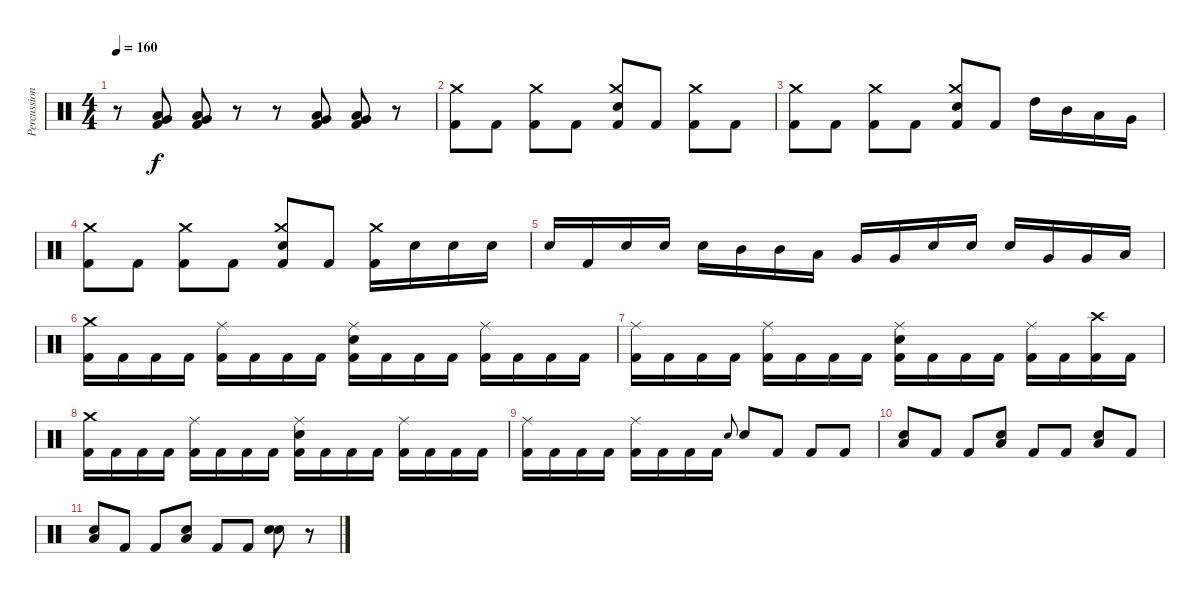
\track ("Percussion" "Percussion") {instrument percussion}
\staff {score}
\articulation defaults
\ts (4 4)
\tempo 160
\clef neutral
\ks c
r.8{dy f} ("Low Floor Tom (hit)" "Very Low Tom (hit)" "Kick (hit) 2").8 ("Low Floor Tom (hit)" "Very Low Tom (hit)" "Kick (hit) 2").8 r.8 r.8 ("Low Floor Tom (hit)" "Very Low Tom (hit)" "Kick (hit) 2").8 ("Low Floor Tom (hit)" "Very Low Tom (hit)" "Kick (hit) 2").8 r.8 |
("Crash medium (hit)" "Kick (hit) 2").8 "Kick (hit) 2".8 ("Crash medium (hit)" "Kick (hit) 2").8 "Kick (hit) 2".8 ("Crash medium (hit)" "Snare (hit) 2" "Kick (hit) 2").8 "Kick (hit) 2".8 ("Crash medium (hit)" "Kick (hit) 2").8 "Kick (hit) 2".8 |
("Crash medium (hit)" "Kick (hit) 2").8 "Kick (hit) 2".8 ("Crash medium (hit)" "Kick (hit) 2").8 "Kick (hit) 2".8 ("Crash medium (hit)" "Snare (hit) 2" "Kick (hit) 2").8 "Kick (hit) 2".8 "High Tom (hit)".16 "Mid Tom (hit)".16 "Low Tom (hit)".16 "Very Low Tom (hit)".16 |
("Crash medium (hit)" "Kick (hit) 2").8 "Kick (hit) 2".8 ("Crash medium (hit)" "Kick (hit) 2").8 "Kick (hit) 2".8 ("Crash medium (hit)" "Snare (hit) 2" "Kick (hit) 2").8 "Kick (hit) 2".8 ("Crash medium (hit)" "Kick (hit) 2").16 "Snare (hit) 2".16 "Snare (hit) 2".16 "Snare (hit) 2".16 |
"Snare (hit) 2".16 "Kick (hit) 2".16 "Snare (hit) 2".16 "Snare (hit) 2".16 "Snare (hit) 2".16 "Mid Tom (hit)".16 "Mid Tom (hit)".16 "Low Tom (hit)".16 "Very Low Tom (hit)".16 "Very Low Tom (hit)".16 "Snare (hit) 2".16 "Snare (hit) 2".16 "Snare (hit) 2".16 "Very Low Tom (hit)".16 "Very Low Tom (hit)".16 "Low Floor Tom (hit)".16 |
("Crash medium (hit)" "Kick (hit) 2").16 "Kick (hit) 2".16 "Kick (hit) 2".16 "Kick (hit) 2".16 ("Ride (middle)" "Kick (hit) 2").16 "Kick (hit) 2".16 "Kick (hit) 2".16 "Kick (hit) 2".16 ("Ride (middle)" "Snare (hit) 2" "Kick (hit) 2").16 "Kick (hit) 2".16 "Kick (hit) 2".16 "Kick (hit) 2".16 ("Ride (middle)" "Kick (hit) 2").16 "Kick (hit) 2".16 "Kick (hit) 2".16 "Kick (hit) 2".16 |
("Ride (middle)" "Kick (hit) 2").16 "Kick (hit) 2".16 "Kick (hit) 2".16 "Kick (hit) 2".16 ("Ride (middle)" "Kick (hit) 2").16 "Kick (hit) 2".16 "Kick (hit) 2".16 "Kick (hit) 2".16 ("Ride (middle)" "Snare (hit) 2" "Kick (hit) 2").16 "Kick (hit) 2".16 "Kick (hit) 2".16 "Kick (hit) 2".16 ("Ride (middle)" "Kick (hit) 2").16 "Kick (hit) 2".16 ("Crash high (hit)" "Kick (hit) 2").16 "Kick (hit) 2".16 |
("Crash medium (hit)" "Kick (hit) 2").16 "Kick (hit) 2".16 "Kick (hit) 2".16 "Kick (hit) 2".16 ("Ride (middle)" "Kick (hit) 2").16 "Kick (hit) 2".16 "Kick (hit) 2".16 "Kick (hit) 2".16 ("Ride (middle)" "Snare (hit) 2" "Kick (hit) 2").16 "Kick (hit) 2".16 "Kick (hit) 2".16 "Kick (hit) 2".16 ("Ride (middle)" "Kick (hit) 2").16 "Kick (hit) 2".16 "Kick (hit) 2".16 "Kick (hit) 2".16 |
("Ride (middle)" "Kick (hit) 2").16 "Kick (hit) 2".16 "Kick (hit) 2".16 "Kick (hit) 2".16 ("Ride (middle)" "Kick (hit) 2").16 "Kick (hit) 2".16 "Kick (hit) 2".16 "Kick (hit) 2".16 "Snare (hit) 2"{h}.8{gr onbeat} "Snare (hit) 2".8 "Kick (hit) 2".8 "Kick (hit) 2".8 "Kick (hit) 2".8 |
("Low Floor Tom (hit)" "Snare (hit) 2").8 "Kick (hit) 2".8 "Kick (hit) 2".8 ("Low Floor Tom (hit)" "Snare (hit) 2").8 "Kick (hit) 2".8 "Kick (hit) 2".8 ("Low Floor Tom (hit)" "Snare (hit) 2").8 "Kick (hit) 2".8 |
("Low Floor Tom (hit)" "Snare (hit) 2").8 "Kick (hit) 2".8 "Kick (hit) 2".8 ("Low Floor Tom (hit)" "Snare (hit) 2").8 "Kick (hit) 2".8 "Kick (hit) 2".8 ("Electric Snare (hit)" "Snare (hit) 2").8 r.8
